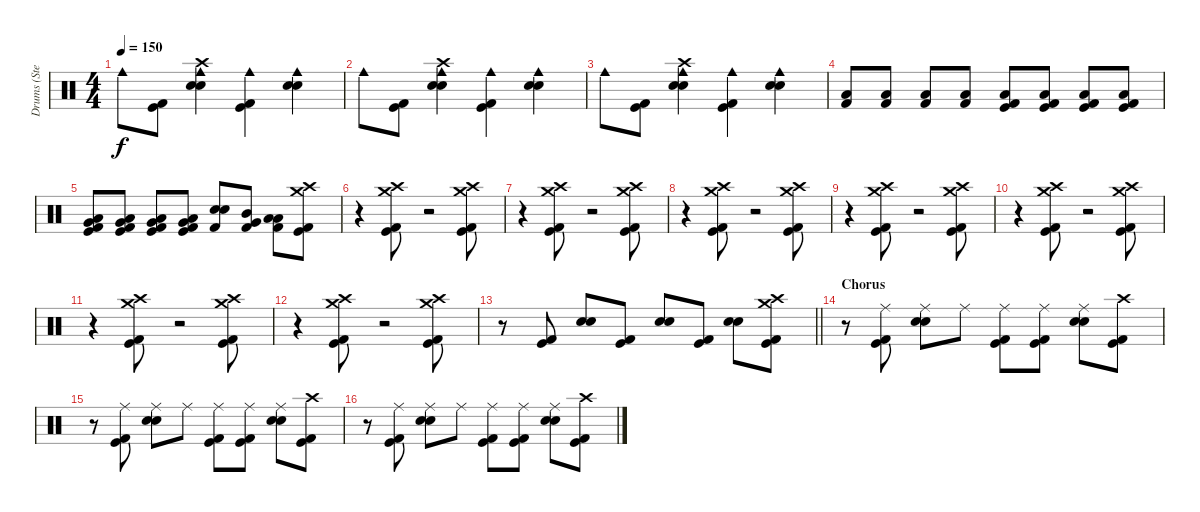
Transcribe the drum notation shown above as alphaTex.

\track ("Drums (Steven)" "Drums (Ste") {instrument percussion}
\staff {score}
\articulation defaults
\ts (4 4)
\tempo 150
\clef neutral
\ks c "Cowbell medium (hit)".8{dy f}
("Kick (hit) 2" "Kick (hit)").8 ("Electric Snare (hit)" "Snare (hit) 2" "Cowbell medium (hit)" "Crash high (hit)").4 ("Kick (hit) 2" "Kick (hit)" "Cowbell medium (hit)").4 ("Electric Snare (hit)" "Snare (hit) 2" "Cowbell medium (hit)").4 |
"Cowbell medium (hit)".8 ("Kick (hit) 2" "Kick (hit)").8 ("Electric Snare (hit)" "Snare (hit) 2" "Cowbell medium (hit)" "Crash high (hit)").4 ("Kick (hit) 2" "Kick (hit)" "Cowbell medium (hit)").4 ("Electric Snare (hit)" "Snare (hit) 2" "Cowbell medium (hit)").4 |
"Cowbell medium (hit)".8 ("Kick (hit) 2" "Kick (hit)").8 ("Electric Snare (hit)" "Snare (hit) 2" "Cowbell medium (hit)" "Crash high (hit)").4 ("Kick (hit) 2" "Kick (hit)" "Cowbell medium (hit)").4 ("Electric Snare (hit)" "Snare (hit) 2" "Cowbell medium (hit)").4 |
("Kick (hit) 2" "Low Floor Tom (hit)").8 ("Kick (hit) 2" "Low Floor Tom (hit)").8 ("Kick (hit) 2" "Low Floor Tom (hit)").8 ("Kick (hit) 2" "Low Floor Tom (hit)").8 ("Kick (hit) 2" "Kick (hit)" "Low Floor Tom (hit)").8 ("Kick (hit) 2" "Kick (hit)" "Low Floor Tom (hit)").8 ("Kick (hit) 2" "Kick (hit)" "Low Floor Tom (hit)").8 ("Kick (hit) 2" "Kick (hit)" "Low Floor Tom (hit)").8 |
("Kick (hit) 2" "Kick (hit)" "Low Floor Tom (hit)" "Very Low Tom (hit)").8 ("Kick (hit) 2" "Kick (hit)" "Low Floor Tom (hit)" "Very Low Tom (hit)").8 ("Kick (hit) 2" "Kick (hit)" "Low Floor Tom (hit)" "Very Low Tom (hit)").8 ("Kick (hit) 2" "Kick (hit)" "Low Floor Tom (hit)" "Very Low Tom (hit)").8 ("Kick (hit) 2" "Snare (hit) 2" "Electric Snare (hit)").8 ("Kick (hit) 2" "Very Low Tom (hit)" "Mid Tom (hit)").8 ("Kick (hit) 2" "Low Floor Tom (hit)" "Low Tom (hit)").8 ("Kick (hit) 2" "Kick (hit)" "Crash medium (hit)" "Crash high (hit)").8 |
r.4 ("Kick (hit) 2" "Kick (hit)" "Crash medium (hit)" "Crash high (hit)").8 r.2 ("Kick (hit) 2" "Kick (hit)" "Crash medium (hit)" "Crash high (hit)").8 |
r.4 ("Kick (hit) 2" "Kick (hit)" "Crash medium (hit)" "Crash high (hit)").8 r.2 ("Kick (hit) 2" "Kick (hit)" "Crash medium (hit)" "Crash high (hit)").8 |
r.4 ("Kick (hit) 2" "Kick (hit)" "Crash medium (hit)" "Crash high (hit)").8 r.2 ("Kick (hit) 2" "Kick (hit)" "Crash medium (hit)" "Crash high (hit)").8 |
r.4 ("Kick (hit) 2" "Kick (hit)" "Crash medium (hit)" "Crash high (hit)").8 r.2 ("Kick (hit) 2" "Kick (hit)" "Crash medium (hit)" "Crash high (hit)").8 |
r.4 ("Kick (hit) 2" "Kick (hit)" "Crash medium (hit)" "Crash high (hit)").8 r.2 ("Kick (hit) 2" "Kick (hit)" "Crash medium (hit)" "Crash high (hit)").8 |
r.4 ("Kick (hit) 2" "Kick (hit)" "Crash medium (hit)" "Crash high (hit)").8 r.2 ("Kick (hit) 2" "Kick (hit)" "Crash medium (hit)" "Crash high (hit)").8 |
r.4 ("Kick (hit) 2" "Kick (hit)" "Crash medium (hit)" "Crash high (hit)").8 r.2 ("Kick (hit) 2" "Kick (hit)" "Crash medium (hit)" "Crash high (hit)").8 |
\barLineRight lightlight
r.8 ("Kick (hit) 2" "Kick (hit)").8 ("Electric Snare (hit)" "Snare (hit) 2").8 ("Kick (hit) 2" "Kick (hit)").8 ("Electric Snare (hit)" "Snare (hit) 2").8 ("Kick (hit) 2" "Kick (hit)").8 ("Electric Snare (hit)" "Snare (hit) 2").8 ("Kick (hit) 2" "Kick (hit)" "Crash medium (hit)" "Crash high (hit)").8 |
\section ("" "Chorus")
r.8 ("Kick (hit) 2" "Kick (hit)" "Ride (middle)").8 ("Electric Snare (hit)" "Snare (hit) 2" "Ride (middle)").8 "Ride (middle)".8 ("Kick (hit) 2" "Kick (hit)" "Ride (middle)").8 ("Kick (hit) 2" "Kick (hit)" "Ride (middle)").8 ("Electric Snare (hit)" "Snare (hit) 2" "Ride (middle)").8 ("Kick (hit) 2" "Kick (hit)" "Crash high (hit)").8 |
r.8 ("Kick (hit) 2" "Kick (hit)" "Ride (middle)").8 ("Electric Snare (hit)" "Snare (hit) 2" "Ride (middle)").8 "Ride (middle)".8 ("Kick (hit) 2" "Kick (hit)" "Ride (middle)").8 ("Kick (hit) 2" "Kick (hit)" "Ride (middle)").8 ("Electric Snare (hit)" "Snare (hit) 2" "Ride (middle)").8 ("Kick (hit) 2" "Kick (hit)" "Crash high (hit)").8 |
r.8 ("Kick (hit) 2" "Kick (hit)" "Ride (middle)").8 ("Electric Snare (hit)" "Snare (hit) 2" "Ride (middle)").8 "Ride (middle)".8 ("Kick (hit) 2" "Kick (hit)" "Ride (middle)").8 ("Kick (hit) 2" "Kick (hit)" "Ride (middle)").8 ("Electric Snare (hit)" "Snare (hit) 2" "Ride (middle)").8 ("Kick (hit) 2" "Kick (hit)" "Crash high (hit)").8
